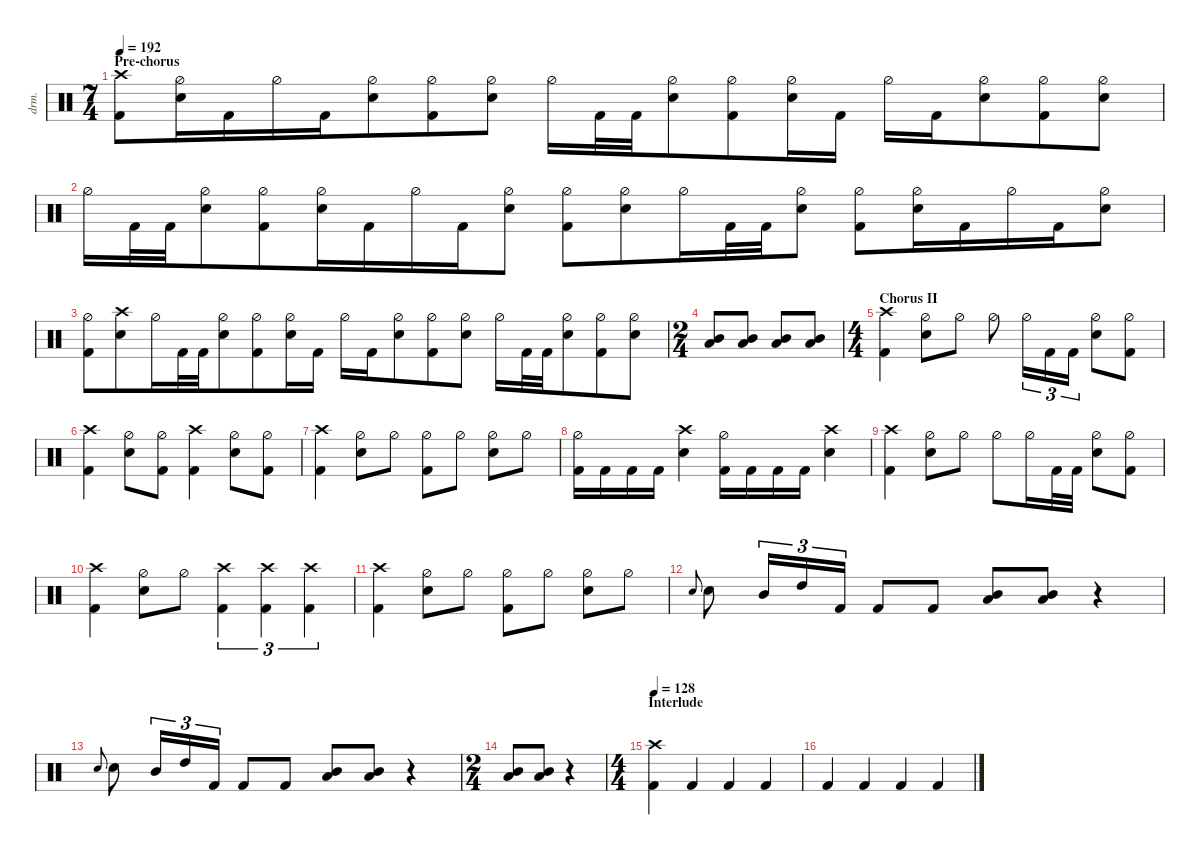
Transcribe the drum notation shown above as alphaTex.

\defaultSystemsLayout 4
\hideDynamics
\bracketExtendMode nobrackets
\otherSystemsTrackNameOrientation horizontal
\track ("Drumkit" "drm.") {defaultSystemsLayout 4 multiBarRest instrument percussion}
\staff
\articulation defaults
\ts (7 4)
\beaming (8 6 4 4)
\section ("" "Pre-chorus")
\tempo 192
\clef neutral
\ks c
("Crash high (hit)" "Kick (hit) 2").8{dy f beam Down} ("Hi-Hat (half)" "Snare (hit) 2").16{beam Down} "Kick (hit) 2".16{beam Down} "Hi-Hat (half)".16{beam Down} "Kick (hit) 2".16{beam Down} ("Hi-Hat (half)" "Snare (hit) 2").8{beam Down} ("Kick (hit) 2" "Hi-Hat (half)").8{beam Down} ("Hi-Hat (half)" "Snare (hit) 2").8{beam Down} "Hi-Hat (half)".16{beam Down} "Kick (hit) 2".32{beam Down} "Kick (hit) 2".32{beam Down} ("Hi-Hat (half)" "Snare (hit) 2").8{beam Down} ("Kick (hit) 2" "Hi-Hat (half)").8{beam Down} ("Hi-Hat (half)" "Snare (hit) 2").16{beam Down} "Kick (hit) 2".16{beam Down} "Hi-Hat (half)".16{beam Down} "Kick (hit) 2".16{beam Down} ("Hi-Hat (half)" "Snare (hit) 2").8{beam Down} ("Kick (hit) 2" "Hi-Hat (half)").8{beam Down} ("Hi-Hat (half)" "Snare (hit) 2").8{beam Down} |
"Hi-Hat (half)".16{beam Down} "Kick (hit) 2".32{beam Down} "Kick (hit) 2".32{beam Down} ("Hi-Hat (half)" "Snare (hit) 2").8{beam Down} ("Kick (hit) 2" "Hi-Hat (half)").8{beam Down} ("Hi-Hat (half)" "Snare (hit) 2").16{beam Down} "Kick (hit) 2".16{beam Down} "Hi-Hat (half)".16{beam Down} "Kick (hit) 2".16{beam Down} ("Hi-Hat (half)" "Snare (hit) 2").8{beam Down} ("Kick (hit) 2" "Hi-Hat (half)").8{beam Down} ("Hi-Hat (half)" "Snare (hit) 2").8{beam Down} "Hi-Hat (half)".16{beam Down} "Kick (hit) 2".32{beam Down} "Kick (hit) 2".32{beam Down} ("Hi-Hat (half)" "Snare (hit) 2").8{beam Down} ("Kick (hit) 2" "Hi-Hat (half)").8{beam Down} ("Hi-Hat (half)" "Snare (hit) 2").16{beam Down} "Kick (hit) 2".16{beam Down} "Hi-Hat (half)".16{beam Down} "Kick (hit) 2".16{beam Down} ("Hi-Hat (half)" "Snare (hit) 2").8{beam Down} |
("Kick (hit) 2" "Hi-Hat (half)").8{beam Down} ("Snare (hit) 2" "Crash high (hit)").8{beam Down} "Hi-Hat (half)".16{beam Down} "Kick (hit) 2".32{beam Down} "Kick (hit) 2".32{beam Down} ("Hi-Hat (half)" "Snare (hit) 2").8{beam Down} ("Kick (hit) 2" "Hi-Hat (half)").8{beam Down} ("Hi-Hat (half)" "Snare (hit) 2").16{beam Down} "Kick (hit) 2".16{beam Down} "Hi-Hat (half)".16{beam Down} "Kick (hit) 2".16{beam Down} ("Hi-Hat (half)" "Snare (hit) 2").8{beam Down} ("Kick (hit) 2" "Hi-Hat (half)").8{beam Down} ("Hi-Hat (half)" "Snare (hit) 2").8{beam Down} "Hi-Hat (half)".16{beam Down} "Kick (hit) 2".32{beam Down} "Kick (hit) 2".32{beam Down} ("Hi-Hat (half)" "Snare (hit) 2").8{beam Down} ("Kick (hit) 2" "Hi-Hat (half)").8{beam Down} ("Hi-Hat (half)" "Snare (hit) 2").8{beam Down} |
\ts (2 4)
\beaming (8 2 2)
("Mid Tom (hit)" "Low Tom (hit)").8{dy fff beam Up} ("Mid Tom (hit)" "Low Tom (hit)").8{beam Up} ("Mid Tom (hit)" "Low Tom (hit)").8{beam Up} ("Mid Tom (hit)" "Low Tom (hit)").8{beam Up} |
\ts (4 4)
\beaming (8 2 2 2 2)
\section ("" "Chorus II")
("Crash high (hit)" "Kick (hit) 2").4{dy f beam Down} ("Hi-Hat (half)" "Snare (hit) 2").8{beam Down} "Hi-Hat (half)".8{beam Down} "Hi-Hat (half)".8{beam Down} "Hi-Hat (half)".16{tu (3 2) beam Down} "Kick (hit) 2".16{tu (3 2) beam Down} "Kick (hit) 2".16{tu (3 2) beam Down} ("Hi-Hat (half)" "Snare (hit) 2").8{beam Down} ("Hi-Hat (half)" "Kick (hit) 2").8{beam Down} |
("Crash high (hit)" "Kick (hit) 2").4{beam Down} ("Hi-Hat (half)" "Snare (hit) 2").8{beam Down} ("Hi-Hat (half)" "Kick (hit) 2").8{beam Down} ("Crash high (hit)" "Kick (hit) 2").4{beam Down} ("Hi-Hat (half)" "Snare (hit) 2").8{beam Down} ("Hi-Hat (half)" "Kick (hit) 2").8{beam Down} |
("Crash high (hit)" "Kick (hit) 2").4{beam Down} ("Hi-Hat (half)" "Snare (hit) 2").8{beam Down} "Hi-Hat (half)".8{beam Down} ("Hi-Hat (half)" "Kick (hit) 2").8{beam Down} "Hi-Hat (half)".8{beam Down} ("Hi-Hat (half)" "Snare (hit) 2").8{beam Down} "Hi-Hat (half)".8{beam Down} |
("Hi-Hat (half)" "Kick (hit) 2").16{beam Down} "Kick (hit) 2".16{beam Down} "Kick (hit) 2".16{beam Down} "Kick (hit) 2".16{beam Down} ("Crash high (hit)" "Snare (hit) 2").4{beam Down} ("Hi-Hat (half)" "Kick (hit) 2").16{beam Down} "Kick (hit) 2".16{beam Down} "Kick (hit) 2".16{beam Down} "Kick (hit) 2".16{beam Down} ("Crash high (hit)" "Snare (hit) 2").4{beam Down} |
("Crash high (hit)" "Kick (hit) 2").4{beam Down} ("Hi-Hat (half)" "Snare (hit) 2").8{beam Down} "Hi-Hat (half)".8{beam Down} "Hi-Hat (half)".8{beam Down} "Hi-Hat (half)".16{beam Down} "Kick (hit) 2".32{beam Down} "Kick (hit) 2".32{beam Down} ("Hi-Hat (half)" "Snare (hit) 2").8{beam Down} ("Hi-Hat (half)" "Kick (hit) 2").8{beam Down} |
("Crash high (hit)" "Kick (hit) 2").4{beam Down} ("Hi-Hat (half)" "Snare (hit) 2").8{beam Down} "Hi-Hat (half)".8{beam Down} ("Crash high (hit)" "Kick (hit) 2").4{tu (3 2) beam Down} ("Crash high (hit)" "Kick (hit) 2").4{tu (3 2) beam Down} ("Crash high (hit)" "Kick (hit) 2").4{tu (3 2) beam Down} |
("Crash high (hit)" "Kick (hit) 2").4{beam Down} ("Hi-Hat (half)" "Snare (hit) 2").8{beam Down} "Hi-Hat (half)".8{beam Down} ("Hi-Hat (half)" "Kick (hit) 2").8{beam Down} "Hi-Hat (half)".8{beam Down} ("Hi-Hat (half)" "Snare (hit) 2").8{beam Down} "Hi-Hat (half)".8{beam Down} |
"Snare (hit) 2".8{gr onbeat beam Up} "Snare (hit) 2".8{beam Down} "Mid Tom (hit)".16{tu (3 2) beam Up} "High Tom (hit)".16{tu (3 2) beam Up} "Kick (hit) 2".16{tu (3 2) beam Up} "Kick (hit) 2".8{beam Up} "Kick (hit) 2".8{beam Up} ("Mid Tom (hit)" "Low Tom (hit)").8{dy fff beam Up} ("Mid Tom (hit)" "Low Tom (hit)").8{beam Up} r.4{beam Up} |
"Snare (hit) 2".8{gr onbeat dy f beam Up} "Snare (hit) 2".8{beam Down} "Mid Tom (hit)".16{tu (3 2) beam Up} "High Tom (hit)".16{tu (3 2) beam Up} "Kick (hit) 2".16{tu (3 2) beam Up} "Kick (hit) 2".8{beam Up} "Kick (hit) 2".8{beam Up} ("Mid Tom (hit)" "Low Tom (hit)").8{dy fff beam Up} ("Mid Tom (hit)" "Low Tom (hit)").8{beam Up} r.4{beam Up} |
\ts (2 4)
\beaming (8 2 2)
("Mid Tom (hit)" "Low Tom (hit)").8{beam Up} ("Mid Tom (hit)" "Low Tom (hit)").8{beam Up} r.4{beam Up} |
\ts (4 4)
\beaming (8 2 2 2 2)
\section ("" "Interlude")
\tempo 128
("Kick (hit) 2" "Crash high (hit)").4{dy f beam Down} "Kick (hit) 2".4{beam Up} "Kick (hit) 2".4{beam Up} "Kick (hit) 2".4{beam Up} |
"Kick (hit) 2".4{beam Up} "Kick (hit) 2".4{beam Up} "Kick (hit) 2".4{beam Up} "Kick (hit) 2".4{beam Up}
